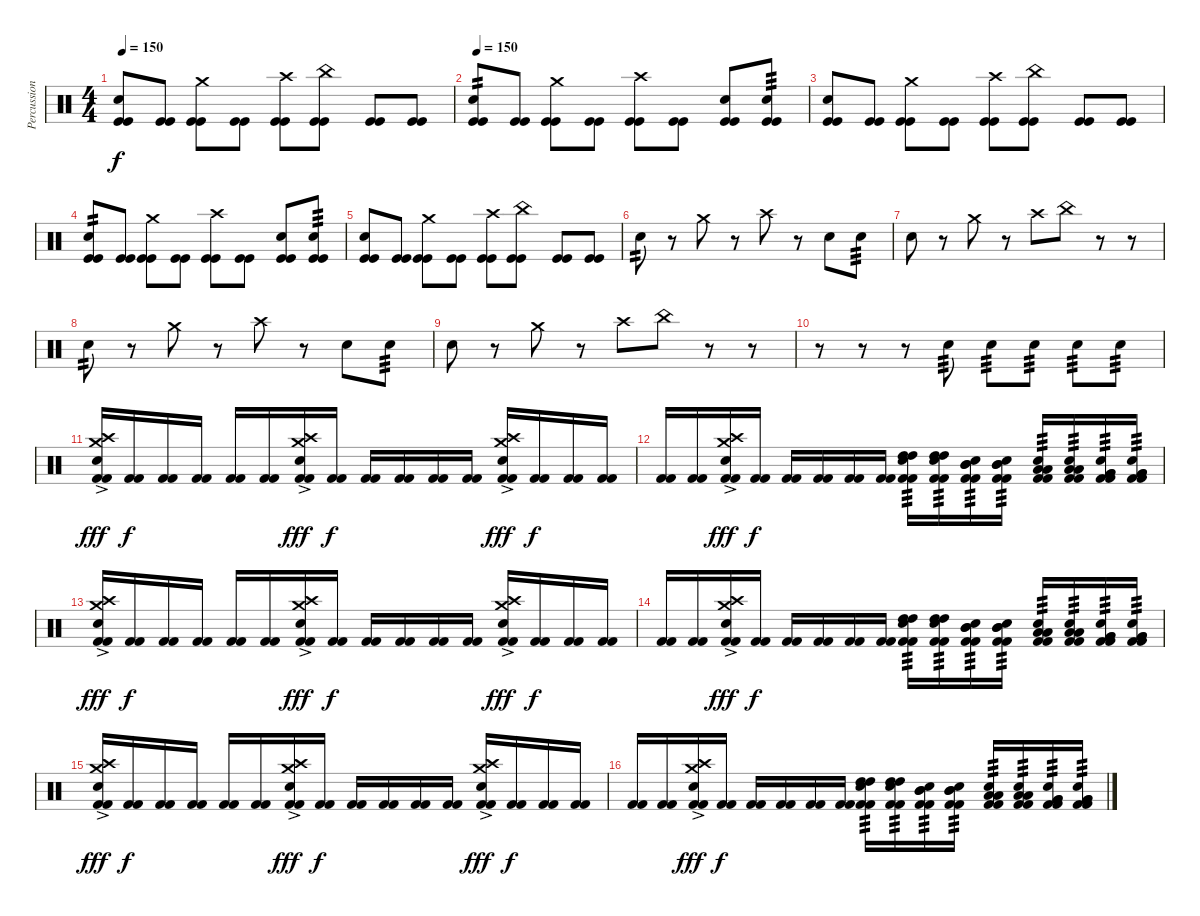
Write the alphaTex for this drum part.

\track ("Percussions" "Percussion") {instrument percussion}
\staff {score}
\articulation defaults
\ts (4 4)
\tempo 150
\clef neutral
\ks c
("Snare (hit) 2" "Kick (hit)" "Kick (hit)").8{dy f} ("Kick (hit)" "Kick (hit)").8 ("Crash medium (hit)" "Kick (hit)" "Kick (hit)").8 ("Kick (hit)" "Kick (hit)").8 ("Crash high (hit)" "Kick (hit)" "Kick (hit)").8 ("China (hit)" "Kick (hit)" "Kick (hit)").8 ("Kick (hit)" "Kick (hit)").8 ("Kick (hit)" "Kick (hit)").8 |
\tempo 150
("Snare (hit) 2" "Kick (hit)" "Kick (hit)").8{tp 2} ("Kick (hit)" "Kick (hit)").8 ("Crash medium (hit)" "Kick (hit)" "Kick (hit)").8 ("Kick (hit)" "Kick (hit)").8 ("Crash high (hit)" "Kick (hit)" "Kick (hit)").8 ("Kick (hit)" "Kick (hit)").8 ("Snare (hit) 2" "Kick (hit)" "Kick (hit)").8 ("Snare (hit) 2" "Kick (hit)" "Kick (hit)").8{tp 3} |
("Snare (hit) 2" "Kick (hit)" "Kick (hit)").8 ("Kick (hit)" "Kick (hit)").8 ("Crash medium (hit)" "Kick (hit)" "Kick (hit)").8 ("Kick (hit)" "Kick (hit)").8 ("Crash high (hit)" "Kick (hit)" "Kick (hit)").8 ("China (hit)" "Kick (hit)" "Kick (hit)").8 ("Kick (hit)" "Kick (hit)").8 ("Kick (hit)" "Kick (hit)").8 |
("Snare (hit) 2" "Kick (hit)" "Kick (hit)").8{tp 2} ("Kick (hit)" "Kick (hit)").8 ("Crash medium (hit)" "Kick (hit)" "Kick (hit)").8 ("Kick (hit)" "Kick (hit)").8 ("Crash high (hit)" "Kick (hit)" "Kick (hit)").8 ("Kick (hit)" "Kick (hit)").8 ("Snare (hit) 2" "Kick (hit)" "Kick (hit)").8 ("Snare (hit) 2" "Kick (hit)" "Kick (hit)").8{tp 3} |
("Snare (hit) 2" "Kick (hit)" "Kick (hit)").8 ("Kick (hit)" "Kick (hit)").8 ("Crash medium (hit)" "Kick (hit)" "Kick (hit)").8 ("Kick (hit)" "Kick (hit)").8 ("Crash high (hit)" "Kick (hit)" "Kick (hit)").8 ("China (hit)" "Kick (hit)" "Kick (hit)").8 ("Kick (hit)" "Kick (hit)").8 ("Kick (hit)" "Kick (hit)").8 |
"Snare (hit) 2".8{tp 2} r.8 "Crash medium (hit)".8 r.8 "Crash high (hit)".8 r.8 "Snare (hit) 2".8 "Snare (hit) 2".8{tp 3} |
"Snare (hit) 2".8 r.8 "Crash medium (hit)".8 r.8 "Crash high (hit)".8 "China (hit)".8 r.8 r.8 |
"Snare (hit) 2".8{tp 2} r.8 "Crash medium (hit)".8 r.8 "Crash high (hit)".8 r.8 "Snare (hit) 2".8 "Snare (hit) 2".8{tp 3} |
"Snare (hit) 2".8 r.8 "Crash medium (hit)".8 r.8 "Crash high (hit)".8 "China (hit)".8 r.8 r.8 |
r.8 r.8 r.8 "Electric Snare (hit)".8{tp 3} "Electric Snare (hit)".8{tp 3} "Electric Snare (hit)".8{tp 3} "Electric Snare (hit)".8{tp 3} "Electric Snare (hit)".8{tp 3} |
("Snare (hit) 2"{ac} "Crash medium (hit)"{ac} "Crash high (hit)"{ac} "Kick (hit) 2" "Kick (hit) 2").16{dy fff} ("Kick (hit) 2" "Kick (hit) 2").16{dy f} ("Kick (hit) 2" "Kick (hit) 2").16 ("Kick (hit) 2" "Kick (hit) 2").16 ("Kick (hit) 2" "Kick (hit) 2").16 ("Kick (hit) 2" "Kick (hit) 2").16 ("Snare (hit) 2"{ac} "Crash medium (hit)"{ac} "Crash high (hit)"{ac} "Kick (hit) 2" "Kick (hit) 2").16{dy fff} ("Kick (hit) 2" "Kick (hit) 2").16{dy f} ("Kick (hit) 2" "Kick (hit) 2").16 ("Kick (hit) 2" "Kick (hit) 2").16 ("Kick (hit) 2" "Kick (hit) 2").16 ("Kick (hit) 2" "Kick (hit) 2").16 ("Snare (hit) 2"{ac} "Crash medium (hit)"{ac} "Crash high (hit)"{ac} "Kick (hit) 2" "Kick (hit) 2").16{dy fff} ("Kick (hit) 2" "Kick (hit) 2").16{dy f} ("Kick (hit) 2" "Kick (hit) 2").16 ("Kick (hit) 2" "Kick (hit) 2").16 |
("Kick (hit) 2" "Kick (hit) 2").16 ("Kick (hit) 2" "Kick (hit) 2").16 ("Snare (hit) 2"{ac} "Crash medium (hit)"{ac} "Crash high (hit)"{ac} "Kick (hit) 2" "Kick (hit) 2").16{dy fff} ("Kick (hit) 2" "Kick (hit) 2").16{dy f} ("Kick (hit) 2" "Kick (hit) 2").16 ("Kick (hit) 2" "Kick (hit) 2").16 ("Kick (hit) 2" "Kick (hit) 2").16 ("Kick (hit) 2" "Kick (hit) 2").16 ("Snare (hit) 2" "High Tom (hit)" "High Tom (hit)" "Kick (hit) 2" "Kick (hit) 2").16{tp 3} ("Snare (hit) 2" "High Tom (hit)" "High Tom (hit)" "Kick (hit) 2" "Kick (hit) 2").16{tp 3} ("Snare (hit) 2" "Mid Tom (hit)" "Mid Tom (hit)" "Kick (hit) 2" "Kick (hit) 2").16{tp 3} ("Snare (hit) 2" "Mid Tom (hit)" "Mid Tom (hit)" "Kick (hit) 2" "Kick (hit) 2").16{tp 3} ("Snare (hit) 2" "Low Tom (hit)" "Low Tom (hit)" "Kick (hit) 2" "Kick (hit) 2").16{tp 3} ("Snare (hit) 2" "Low Tom (hit)" "Low Tom (hit)" "Kick (hit) 2" "Kick (hit) 2").16{tp 3} ("Snare (hit) 2" "Very Low Tom (hit)" "Very Low Tom (hit)" "Kick (hit) 2" "Kick (hit) 2").16{tp 3} ("Snare (hit) 2" "Very Low Tom (hit)" "Very Low Tom (hit)" "Kick (hit) 2" "Kick (hit) 2").16{tp 3} |
("Snare (hit) 2"{ac} "Crash medium (hit)"{ac} "Crash high (hit)"{ac} "Kick (hit) 2" "Kick (hit) 2").16{dy fff} ("Kick (hit) 2" "Kick (hit) 2").16{dy f} ("Kick (hit) 2" "Kick (hit) 2").16 ("Kick (hit) 2" "Kick (hit) 2").16 ("Kick (hit) 2" "Kick (hit) 2").16 ("Kick (hit) 2" "Kick (hit) 2").16 ("Snare (hit) 2"{ac} "Crash medium (hit)"{ac} "Crash high (hit)"{ac} "Kick (hit) 2" "Kick (hit) 2").16{dy fff} ("Kick (hit) 2" "Kick (hit) 2").16{dy f} ("Kick (hit) 2" "Kick (hit) 2").16 ("Kick (hit) 2" "Kick (hit) 2").16 ("Kick (hit) 2" "Kick (hit) 2").16 ("Kick (hit) 2" "Kick (hit) 2").16 ("Snare (hit) 2"{ac} "Crash medium (hit)"{ac} "Crash high (hit)"{ac} "Kick (hit) 2" "Kick (hit) 2").16{dy fff} ("Kick (hit) 2" "Kick (hit) 2").16{dy f} ("Kick (hit) 2" "Kick (hit) 2").16 ("Kick (hit) 2" "Kick (hit) 2").16 |
("Kick (hit) 2" "Kick (hit) 2").16 ("Kick (hit) 2" "Kick (hit) 2").16 ("Snare (hit) 2"{ac} "Crash medium (hit)"{ac} "Crash high (hit)"{ac} "Kick (hit) 2" "Kick (hit) 2").16{dy fff} ("Kick (hit) 2" "Kick (hit) 2").16{dy f} ("Kick (hit) 2" "Kick (hit) 2").16 ("Kick (hit) 2" "Kick (hit) 2").16 ("Kick (hit) 2" "Kick (hit) 2").16 ("Kick (hit) 2" "Kick (hit) 2").16 ("Snare (hit) 2" "High Tom (hit)" "High Tom (hit)" "Kick (hit) 2" "Kick (hit) 2").16{tp 3} ("Snare (hit) 2" "High Tom (hit)" "High Tom (hit)" "Kick (hit) 2" "Kick (hit) 2").16{tp 3} ("Snare (hit) 2" "Mid Tom (hit)" "Mid Tom (hit)" "Kick (hit) 2" "Kick (hit) 2").16{tp 3} ("Snare (hit) 2" "Mid Tom (hit)" "Mid Tom (hit)" "Kick (hit) 2" "Kick (hit) 2").16{tp 3} ("Snare (hit) 2" "Low Tom (hit)" "Low Tom (hit)" "Kick (hit) 2" "Kick (hit) 2").16{tp 3} ("Snare (hit) 2" "Low Tom (hit)" "Low Tom (hit)" "Kick (hit) 2" "Kick (hit) 2").16{tp 3} ("Snare (hit) 2" "Very Low Tom (hit)" "Very Low Tom (hit)" "Kick (hit) 2" "Kick (hit) 2").16{tp 3} ("Snare (hit) 2" "Very Low Tom (hit)" "Very Low Tom (hit)" "Kick (hit) 2" "Kick (hit) 2").16{tp 3} |
("Snare (hit) 2"{ac} "Crash medium (hit)"{ac} "Crash high (hit)"{ac} "Kick (hit) 2" "Kick (hit) 2").16{dy fff} ("Kick (hit) 2" "Kick (hit) 2").16{dy f} ("Kick (hit) 2" "Kick (hit) 2").16 ("Kick (hit) 2" "Kick (hit) 2").16 ("Kick (hit) 2" "Kick (hit) 2").16 ("Kick (hit) 2" "Kick (hit) 2").16 ("Snare (hit) 2"{ac} "Crash medium (hit)"{ac} "Crash high (hit)"{ac} "Kick (hit) 2" "Kick (hit) 2").16{dy fff} ("Kick (hit) 2" "Kick (hit) 2").16{dy f} ("Kick (hit) 2" "Kick (hit) 2").16 ("Kick (hit) 2" "Kick (hit) 2").16 ("Kick (hit) 2" "Kick (hit) 2").16 ("Kick (hit) 2" "Kick (hit) 2").16 ("Snare (hit) 2"{ac} "Crash medium (hit)"{ac} "Crash high (hit)"{ac} "Kick (hit) 2" "Kick (hit) 2").16{dy fff} ("Kick (hit) 2" "Kick (hit) 2").16{dy f} ("Kick (hit) 2" "Kick (hit) 2").16 ("Kick (hit) 2" "Kick (hit) 2").16 |
("Kick (hit) 2" "Kick (hit) 2").16 ("Kick (hit) 2" "Kick (hit) 2").16 ("Snare (hit) 2"{ac} "Crash medium (hit)"{ac} "Crash high (hit)"{ac} "Kick (hit) 2" "Kick (hit) 2").16{dy fff} ("Kick (hit) 2" "Kick (hit) 2").16{dy f} ("Kick (hit) 2" "Kick (hit) 2").16 ("Kick (hit) 2" "Kick (hit) 2").16 ("Kick (hit) 2" "Kick (hit) 2").16 ("Kick (hit) 2" "Kick (hit) 2").16 ("Snare (hit) 2" "High Tom (hit)" "High Tom (hit)" "Kick (hit) 2" "Kick (hit) 2").16{tp 3} ("Snare (hit) 2" "High Tom (hit)" "High Tom (hit)" "Kick (hit) 2" "Kick (hit) 2").16{tp 3} ("Snare (hit) 2" "Mid Tom (hit)" "Mid Tom (hit)" "Kick (hit) 2" "Kick (hit) 2").16{tp 3} ("Snare (hit) 2" "Mid Tom (hit)" "Mid Tom (hit)" "Kick (hit) 2" "Kick (hit) 2").16{tp 3} ("Snare (hit) 2" "Low Tom (hit)" "Low Tom (hit)" "Kick (hit) 2" "Kick (hit) 2").16{tp 3} ("Snare (hit) 2" "Low Tom (hit)" "Low Tom (hit)" "Kick (hit) 2" "Kick (hit) 2").16{tp 3} ("Snare (hit) 2" "Very Low Tom (hit)" "Very Low Tom (hit)" "Kick (hit) 2" "Kick (hit) 2").16{tp 3} ("Snare (hit) 2" "Very Low Tom (hit)" "Very Low Tom (hit)" "Kick (hit) 2" "Kick (hit) 2").16{tp 3}
